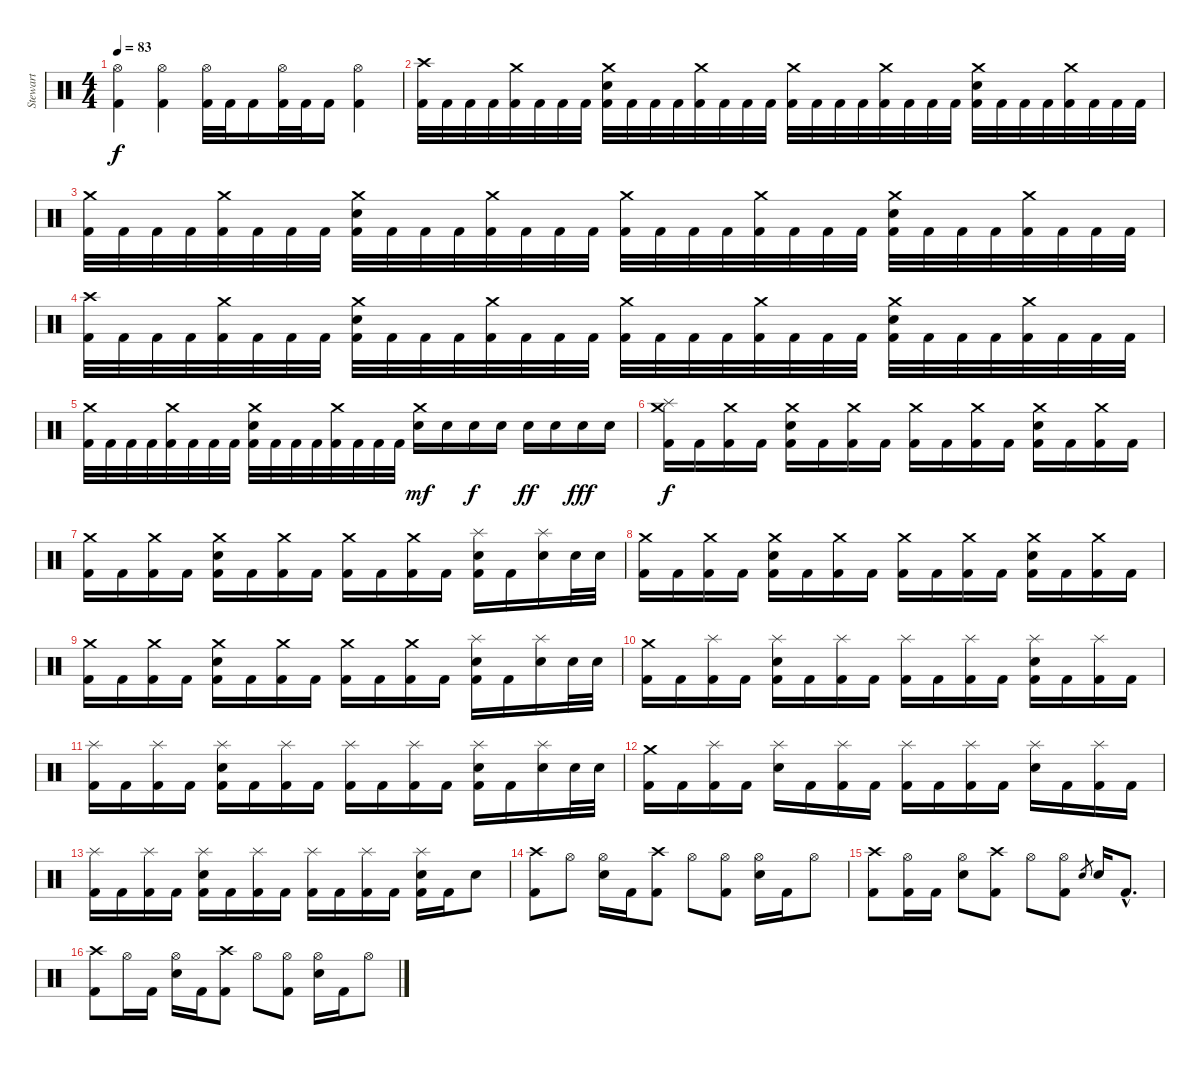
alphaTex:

\track ("Stewart" "Stewart") {instrument percussion}
\staff {score}
\articulation defaults
\ts (4 4)
\tempo 83
\clef neutral
\ks c
("Hi-Hat (open)" "Kick (hit) 2").4{dy f} ("Hi-Hat (open)" "Kick (hit) 2").4 ("Hi-Hat (open)" "Kick (hit) 2").32 "Kick (hit) 2".32 "Kick (hit) 2".16 ("Hi-Hat (open)" "Kick (hit) 2").32 "Kick (hit) 2".32 "Kick (hit) 2".16 ("Hi-Hat (open)" "Kick (hit) 2").4 |
("Crash high (hit)" "Kick (hit) 2").32 "Kick (hit) 2".32 "Kick (hit) 2".32 "Kick (hit) 2".32 ("Crash medium (hit)" "Kick (hit) 2").32 "Kick (hit) 2".32 "Kick (hit) 2".32 "Kick (hit) 2".32 ("Crash medium (hit)" "Electric Snare (hit)" "Kick (hit) 2").32 "Kick (hit) 2".32 "Kick (hit) 2".32 "Kick (hit) 2".32 ("Crash medium (hit)" "Kick (hit) 2").32 "Kick (hit) 2".32 "Kick (hit) 2".32 "Kick (hit) 2".32 ("Crash medium (hit)" "Kick (hit) 2").32 "Kick (hit) 2".32 "Kick (hit) 2".32 "Kick (hit) 2".32 ("Crash medium (hit)" "Kick (hit) 2").32 "Kick (hit) 2".32 "Kick (hit) 2".32 "Kick (hit) 2".32 ("Crash medium (hit)" "Electric Snare (hit)" "Kick (hit) 2").32 "Kick (hit) 2".32 "Kick (hit) 2".32 "Kick (hit) 2".32 ("Crash medium (hit)" "Kick (hit) 2").32 "Kick (hit) 2".32 "Kick (hit) 2".32 "Kick (hit) 2".32 |
("Crash medium (hit)" "Kick (hit) 2").32 "Kick (hit) 2".32 "Kick (hit) 2".32 "Kick (hit) 2".32 ("Crash medium (hit)" "Kick (hit) 2").32 "Kick (hit) 2".32 "Kick (hit) 2".32 "Kick (hit) 2".32 ("Crash medium (hit)" "Electric Snare (hit)" "Kick (hit) 2").32 "Kick (hit) 2".32 "Kick (hit) 2".32 "Kick (hit) 2".32 ("Crash medium (hit)" "Kick (hit) 2").32 "Kick (hit) 2".32 "Kick (hit) 2".32 "Kick (hit) 2".32 ("Crash medium (hit)" "Kick (hit) 2").32 "Kick (hit) 2".32 "Kick (hit) 2".32 "Kick (hit) 2".32 ("Crash medium (hit)" "Kick (hit) 2").32 "Kick (hit) 2".32 "Kick (hit) 2".32 "Kick (hit) 2".32 ("Crash medium (hit)" "Electric Snare (hit)" "Kick (hit) 2").32 "Kick (hit) 2".32 "Kick (hit) 2".32 "Kick (hit) 2".32 ("Crash medium (hit)" "Kick (hit) 2").32 "Kick (hit) 2".32 "Kick (hit) 2".32 "Kick (hit) 2".32 |
("Crash high (hit)" "Kick (hit) 2").32 "Kick (hit) 2".32 "Kick (hit) 2".32 "Kick (hit) 2".32 ("Crash medium (hit)" "Kick (hit) 2").32 "Kick (hit) 2".32 "Kick (hit) 2".32 "Kick (hit) 2".32 ("Crash medium (hit)" "Electric Snare (hit)" "Kick (hit) 2").32 "Kick (hit) 2".32 "Kick (hit) 2".32 "Kick (hit) 2".32 ("Crash medium (hit)" "Kick (hit) 2").32 "Kick (hit) 2".32 "Kick (hit) 2".32 "Kick (hit) 2".32 ("Crash medium (hit)" "Kick (hit) 2").32 "Kick (hit) 2".32 "Kick (hit) 2".32 "Kick (hit) 2".32 ("Crash medium (hit)" "Kick (hit) 2").32 "Kick (hit) 2".32 "Kick (hit) 2".32 "Kick (hit) 2".32 ("Crash medium (hit)" "Electric Snare (hit)" "Kick (hit) 2").32 "Kick (hit) 2".32 "Kick (hit) 2".32 "Kick (hit) 2".32 ("Crash medium (hit)" "Kick (hit) 2").32 "Kick (hit) 2".32 "Kick (hit) 2".32 "Kick (hit) 2".32 |
("Crash medium (hit)" "Kick (hit) 2").32 "Kick (hit) 2".32 "Kick (hit) 2".32 "Kick (hit) 2".32 ("Crash medium (hit)" "Kick (hit) 2").32 "Kick (hit) 2".32 "Kick (hit) 2".32 "Kick (hit) 2".32 ("Crash medium (hit)" "Electric Snare (hit)" "Kick (hit) 2").32 "Kick (hit) 2".32 "Kick (hit) 2".32 "Kick (hit) 2".32 ("Crash medium (hit)" "Kick (hit) 2").32 "Kick (hit) 2".32 "Kick (hit) 2".32 "Kick (hit) 2".32 ("Crash medium (hit)" "Electric Snare (hit)").16{dy mf} "Electric Snare (hit)".16 "Electric Snare (hit)".16{dy f} "Electric Snare (hit)".16 "Electric Snare (hit)".16{dy ff} "Electric Snare (hit)".16 "Electric Snare (hit)".16{dy fff} "Electric Snare (hit)".16 |
("Crash medium (hit)" "Splash (hit)" "Kick (hit) 2").16{dy f} "Kick (hit) 2".16 ("Crash medium (hit)" "Kick (hit) 2").16 "Kick (hit) 2".16 ("Crash medium (hit)" "Electric Snare (hit)" "Kick (hit) 2").16 "Kick (hit) 2".16 ("Crash medium (hit)" "Kick (hit) 2").16 "Kick (hit) 2".16 ("Crash medium (hit)" "Kick (hit) 2").16 "Kick (hit) 2".16 ("Crash medium (hit)" "Kick (hit) 2").16 "Kick (hit) 2".16 ("Crash medium (hit)" "Electric Snare (hit)" "Kick (hit) 2").16 "Kick (hit) 2".16 ("Crash medium (hit)" "Kick (hit) 2").16 "Kick (hit) 2".16 |
("Crash medium (hit)" "Kick (hit) 2").16 "Kick (hit) 2".16 ("Crash medium (hit)" "Kick (hit) 2").16 "Kick (hit) 2".16 ("Crash medium (hit)" "Electric Snare (hit)" "Kick (hit) 2").16 "Kick (hit) 2".16 ("Crash medium (hit)" "Kick (hit) 2").16 "Kick (hit) 2".16 ("Crash medium (hit)" "Kick (hit) 2").16 "Kick (hit) 2".16 ("Crash medium (hit)" "Kick (hit) 2").16 "Kick (hit) 2".16 ("Splash (hit)" "Electric Snare (hit)" "Kick (hit) 2").16 "Kick (hit) 2".16 ("Splash (hit)" "Electric Snare (hit)").16 "Electric Snare (hit)".32 "Electric Snare (hit)".32 |
("Crash medium (hit)" "Kick (hit) 2").16 "Kick (hit) 2".16 ("Crash medium (hit)" "Kick (hit) 2").16 "Kick (hit) 2".16 ("Crash medium (hit)" "Electric Snare (hit)" "Kick (hit) 2").16 "Kick (hit) 2".16 ("Crash medium (hit)" "Kick (hit) 2").16 "Kick (hit) 2".16 ("Crash medium (hit)" "Kick (hit) 2").16 "Kick (hit) 2".16 ("Crash medium (hit)" "Kick (hit) 2").16 "Kick (hit) 2".16 ("Crash medium (hit)" "Electric Snare (hit)" "Kick (hit) 2").16 "Kick (hit) 2".16 ("Crash medium (hit)" "Kick (hit) 2").16 "Kick (hit) 2".16 |
("Crash medium (hit)" "Kick (hit) 2").16 "Kick (hit) 2".16 ("Crash medium (hit)" "Kick (hit) 2").16 "Kick (hit) 2".16 ("Crash medium (hit)" "Electric Snare (hit)" "Kick (hit) 2").16 "Kick (hit) 2".16 ("Crash medium (hit)" "Kick (hit) 2").16 "Kick (hit) 2".16 ("Crash medium (hit)" "Kick (hit) 2").16 "Kick (hit) 2".16 ("Crash medium (hit)" "Kick (hit) 2").16 "Kick (hit) 2".16 ("Splash (hit)" "Electric Snare (hit)" "Kick (hit) 2").16 "Kick (hit) 2".16 ("Splash (hit)" "Electric Snare (hit)").16 "Electric Snare (hit)".32 "Electric Snare (hit)".32 |
("Crash medium (hit)" "Kick (hit) 2").16 "Kick (hit) 2".16 ("Splash (hit)" "Kick (hit) 2").16 "Kick (hit) 2".16 ("Splash (hit)" "Electric Snare (hit)" "Kick (hit) 2").16 "Kick (hit) 2".16 ("Splash (hit)" "Kick (hit) 2").16 "Kick (hit) 2".16 ("Splash (hit)" "Kick (hit) 2").16 "Kick (hit) 2".16 ("Splash (hit)" "Kick (hit) 2").16 "Kick (hit) 2".16 ("Splash (hit)" "Electric Snare (hit)" "Kick (hit) 2").16 "Kick (hit) 2".16 ("Splash (hit)" "Kick (hit) 2").16 "Kick (hit) 2".16 |
("Splash (hit)" "Kick (hit) 2").16 "Kick (hit) 2".16 ("Splash (hit)" "Kick (hit) 2").16 "Kick (hit) 2".16 ("Splash (hit)" "Electric Snare (hit)" "Kick (hit) 2").16 "Kick (hit) 2".16 ("Splash (hit)" "Kick (hit) 2").16 "Kick (hit) 2".16 ("Splash (hit)" "Kick (hit) 2").16 "Kick (hit) 2".16 ("Splash (hit)" "Kick (hit) 2").16 "Kick (hit) 2".16 ("Splash (hit)" "Electric Snare (hit)" "Kick (hit) 2").16 "Kick (hit) 2".16 ("Splash (hit)" "Electric Snare (hit)").16 "Electric Snare (hit)".32 "Electric Snare (hit)".32 |
("Crash medium (hit)" "Kick (hit) 2").16 "Kick (hit) 2".16 ("Splash (hit)" "Kick (hit) 2").16 "Kick (hit) 2".16 ("Splash (hit)" "Electric Snare (hit)").16 "Kick (hit) 2".16 ("Splash (hit)" "Kick (hit) 2").16 "Kick (hit) 2".16 ("Splash (hit)" "Kick (hit) 2").16 "Kick (hit) 2".16 ("Splash (hit)" "Kick (hit) 2").16 "Kick (hit) 2".16 ("Splash (hit)" "Electric Snare (hit)").16 "Kick (hit) 2".16 ("Splash (hit)" "Kick (hit) 2").16 "Kick (hit) 2".16 |
("Splash (hit)" "Kick (hit) 2").16 "Kick (hit) 2".16 ("Splash (hit)" "Kick (hit) 2").16 "Kick (hit) 2".16 ("Splash (hit)" "Electric Snare (hit)" "Kick (hit) 2").16 "Kick (hit) 2".16 ("Splash (hit)" "Kick (hit) 2").16 "Kick (hit) 2".16 ("Splash (hit)" "Kick (hit) 2").16 "Kick (hit) 2".16 ("Splash (hit)" "Kick (hit) 2").16 "Kick (hit) 2".16 ("Splash (hit)" "Electric Snare (hit)" "Kick (hit) 2").16 "Kick (hit) 2".16 "Electric Snare (hit)".8 |
("Crash high (hit)" "Kick (hit) 2").8 "Hi-Hat (open)".8 ("Hi-Hat (open)" "Electric Snare (hit)").16 "Kick (hit) 2".16 ("Crash high (hit)" "Kick (hit) 2").8 "Hi-Hat (open)".8 ("Hi-Hat (open)" "Kick (hit) 2").8 ("Hi-Hat (open)" "Electric Snare (hit)").16 "Kick (hit) 2".16 "Hi-Hat (open)".8 |
("Crash high (hit)" "Kick (hit) 2").8 ("Hi-Hat (open)" "Kick (hit) 2").16 "Kick (hit) 2".16 ("Hi-Hat (open)" "Electric Snare (hit)").8 ("Crash high (hit)" "Kick (hit) 2").8 "Hi-Hat (open)".8 ("Hi-Hat (open)" "Kick (hit) 2").8 "Electric Snare (hit)".8{gr} "Electric Snare (hit)".16 "Kick (hit) 2"{hac}.8{d} |
("Crash high (hit)" "Kick (hit) 2").8 "Hi-Hat (open)".16 "Kick (hit) 2".16 ("Hi-Hat (open)" "Electric Snare (hit)").16 "Kick (hit) 2".16 ("Crash high (hit)" "Kick (hit) 2").8 "Hi-Hat (open)".8 ("Hi-Hat (open)" "Kick (hit) 2").8 ("Hi-Hat (open)" "Electric Snare (hit)").16 "Kick (hit) 2".16 "Hi-Hat (open)".8
